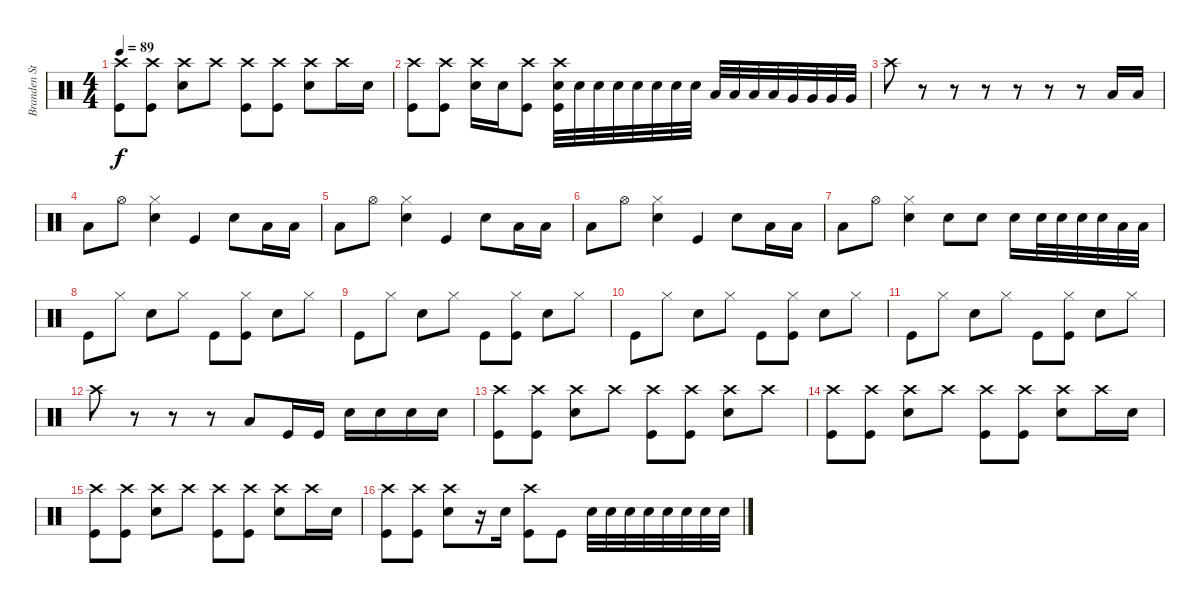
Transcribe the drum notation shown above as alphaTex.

\track ("Branden Steineckert - Drums" "Branden St") {instrument percussion}
\staff {score}
\articulation defaults
\ts (4 4)
\tempo 89
\clef neutral
\ks c
("Crash high (hit)" "Kick (hit)").8{dy f} ("Crash high (hit)" "Kick (hit)").8 ("Crash high (hit)" "Electric Snare (hit)").8 "Crash high (hit)".8 ("Crash high (hit)" "Kick (hit)").8 ("Crash high (hit)" "Kick (hit)").8 ("Crash high (hit)" "Electric Snare (hit)").8 "Crash high (hit)".16 "Electric Snare (hit)".16 |
("Crash high (hit)" "Kick (hit)").8 ("Crash high (hit)" "Kick (hit)").8 ("Crash high (hit)" "Electric Snare (hit)").16 "Electric Snare (hit)".16 ("Crash high (hit)" "Kick (hit)").8 ("Crash high (hit)" "Electric Snare (hit)" "Kick (hit)").32 "Electric Snare (hit)".32 "Electric Snare (hit)".32 "Electric Snare (hit)".32 "Electric Snare (hit)".32 "Electric Snare (hit)".32 "Electric Snare (hit)".32 "Electric Snare (hit)".32 "Low Tom (hit)".32 "Low Tom (hit)".32 "Low Tom (hit)".32 "Low Tom (hit)".32 "Very Low Tom (hit)".32 "Very Low Tom (hit)".32 "Very Low Tom (hit)".32 "Very Low Tom (hit)".32 |
"Crash high (hit)".8 r.8 r.8 r.8 r.8 r.8 r.8 "Low Floor Tom (hit)".16 "Low Floor Tom (hit)".16 |
"Low Floor Tom (hit)".8 "Hi-Hat (open)".8 ("Hi-Hat (closed)" "Electric Snare (hit)").4 "Kick (hit)".4 "Electric Snare (hit)".8 "Low Floor Tom (hit)".16 "Low Floor Tom (hit)".16 |
"Low Floor Tom (hit)".8 "Hi-Hat (open)".8 ("Hi-Hat (closed)" "Electric Snare (hit)").4 "Kick (hit)".4 "Electric Snare (hit)".8 "Low Floor Tom (hit)".16 "Low Floor Tom (hit)".16 |
"Low Floor Tom (hit)".8 "Hi-Hat (open)".8 ("Hi-Hat (closed)" "Electric Snare (hit)").4 "Kick (hit)".4 "Electric Snare (hit)".8 "Low Floor Tom (hit)".16 "Low Floor Tom (hit)".16 |
"Low Floor Tom (hit)".8 "Hi-Hat (open)".8 ("Hi-Hat (closed)" "Electric Snare (hit)").4 "Electric Snare (hit)".8 "Electric Snare (hit)".8 "Electric Snare (hit)".16 "Electric Snare (hit)".32 "Electric Snare (hit)".32 "Electric Snare (hit)".32 "Electric Snare (hit)".32 "Low Floor Tom (hit)".32 "Low Floor Tom (hit)".32 |
"Kick (hit)".8 "Hi-Hat (closed)".8 "Electric Snare (hit)".8 "Hi-Hat (closed)".8 "Kick (hit)".8 ("Hi-Hat (closed)" "Kick (hit)").8 "Electric Snare (hit)".8 "Hi-Hat (closed)".8 |
"Kick (hit)".8 "Hi-Hat (closed)".8 "Electric Snare (hit)".8 "Hi-Hat (closed)".8 "Kick (hit)".8 ("Hi-Hat (closed)" "Kick (hit)").8 "Electric Snare (hit)".8 "Hi-Hat (closed)".8 |
"Kick (hit)".8 "Hi-Hat (closed)".8 "Electric Snare (hit)".8 "Hi-Hat (closed)".8 "Kick (hit)".8 ("Hi-Hat (closed)" "Kick (hit)").8 "Electric Snare (hit)".8 "Hi-Hat (closed)".8 |
"Kick (hit)".8 "Hi-Hat (closed)".8 "Electric Snare (hit)".8 "Hi-Hat (closed)".8 "Kick (hit)".8 ("Hi-Hat (closed)" "Kick (hit)").8 "Electric Snare (hit)".8 "Hi-Hat (closed)".8 |
"Crash high (hit)".8 r.8 r.8 r.8 "Low Floor Tom (hit)".8 "Kick (hit)".16 "Kick (hit)".16 "Electric Snare (hit)".16 "Electric Snare (hit)".16 "Electric Snare (hit)".16 "Electric Snare (hit)".16 |
("Crash high (hit)" "Kick (hit)").8 ("Crash high (hit)" "Kick (hit)").8 ("Crash high (hit)" "Electric Snare (hit)").8 "Crash high (hit)".8 ("Crash high (hit)" "Kick (hit)").8 ("Crash high (hit)" "Kick (hit)").8 ("Crash high (hit)" "Electric Snare (hit)").8 "Crash high (hit)".8 |
("Crash high (hit)" "Kick (hit)").8 ("Crash high (hit)" "Kick (hit)").8 ("Crash high (hit)" "Electric Snare (hit)").8 "Crash high (hit)".8 ("Crash high (hit)" "Kick (hit)").8 ("Crash high (hit)" "Kick (hit)").8 ("Crash high (hit)" "Electric Snare (hit)").8 "Crash high (hit)".16 "Electric Snare (hit)".16 |
("Crash high (hit)" "Kick (hit)").8 ("Crash high (hit)" "Kick (hit)").8 ("Crash high (hit)" "Electric Snare (hit)").8 "Crash high (hit)".8 ("Crash high (hit)" "Kick (hit)").8 ("Crash high (hit)" "Kick (hit)").8 ("Crash high (hit)" "Electric Snare (hit)").8 "Crash high (hit)".16 "Electric Snare (hit)".16 |
("Crash high (hit)" "Kick (hit)").8 ("Crash high (hit)" "Kick (hit)").8 ("Crash high (hit)" "Electric Snare (hit)").8 r.16 "Electric Snare (hit)".16 ("Crash high (hit)" "Kick (hit)").8 "Kick (hit)".8 "Electric Snare (hit)".32 "Electric Snare (hit)".32 "Electric Snare (hit)".32 "Electric Snare (hit)".32 "Electric Snare (hit)".32 "Electric Snare (hit)".32 "Electric Snare (hit)".32 "Electric Snare (hit)".32
